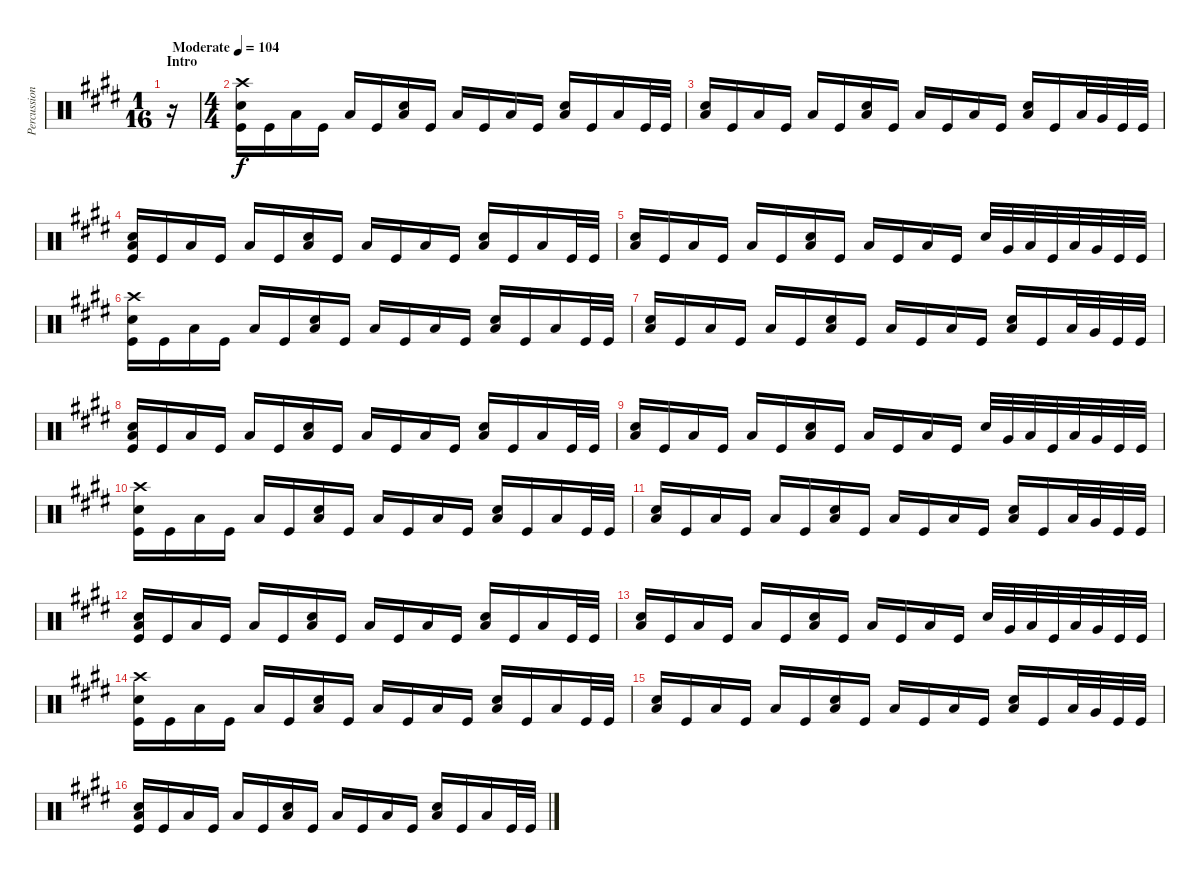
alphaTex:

\track ("Percussion" "Percussion") {instrument percussion}
\staff {score}
\articulation defaults
\ts (1 16)
\section ("" "Intro")
\tempo (104 "Moderate")
\clef neutral
\ks e
r.16{dy f} |
\ts (4 4)
("Crash high (hit)" "Electric Snare (hit)" "Kick (hit)").16 "Kick (hit)".16 "Low Tom (hit)".16 "Kick (hit)".16 "Low Tom (hit)".16 "Kick (hit)".16 ("Low Tom (hit)" "Electric Snare (hit)").16 "Kick (hit)".16 "Low Tom (hit)".16 "Kick (hit)".16 "Low Tom (hit)".16 "Kick (hit)".16 ("Low Tom (hit)" "Electric Snare (hit)").16 "Kick (hit)".16 "Low Tom (hit)".16 "Kick (hit)".32 "Kick (hit)".32 |
("Low Tom (hit)" "Electric Snare (hit)").16 "Kick (hit)".16 "Low Tom (hit)".16 "Kick (hit)".16 "Low Tom (hit)".16 "Kick (hit)".16 ("Low Tom (hit)" "Electric Snare (hit)").16 "Kick (hit)".16 "Low Tom (hit)".16 "Kick (hit)".16 "Low Tom (hit)".16 "Kick (hit)".16 ("Low Tom (hit)" "Electric Snare (hit)").16 "Kick (hit)".16 "Low Tom (hit)".32 "Very Low Tom (hit)".32 "Kick (hit)".32 "Kick (hit)".32 |
("Low Tom (hit)" "Electric Snare (hit)" "Kick (hit)").16 "Kick (hit)".16 "Low Tom (hit)".16 "Kick (hit)".16 "Low Tom (hit)".16 "Kick (hit)".16 ("Low Tom (hit)" "Electric Snare (hit)").16 "Kick (hit)".16 "Low Tom (hit)".16 "Kick (hit)".16 "Low Tom (hit)".16 "Kick (hit)".16 ("Low Tom (hit)" "Electric Snare (hit)").16 "Kick (hit)".16 "Low Tom (hit)".16 "Kick (hit)".32 "Kick (hit)".32 |
("Low Tom (hit)" "Electric Snare (hit)").16 "Kick (hit)".16 "Low Tom (hit)".16 "Kick (hit)".16 "Low Tom (hit)".16 "Kick (hit)".16 ("Low Tom (hit)" "Electric Snare (hit)").16 "Kick (hit)".16 "Low Tom (hit)".16 "Kick (hit)".16 "Low Tom (hit)".16 "Kick (hit)".16 "Electric Snare (hit)".32 "Very Low Tom (hit)".32 "Low Tom (hit)".32 "Kick (hit)".32 "Low Tom (hit)".32 "Very Low Tom (hit)".32 "Kick (hit)".32 "Kick (hit)".32 |
("Crash high (hit)" "Electric Snare (hit)" "Kick (hit)").16 "Kick (hit)".16 "Low Tom (hit)".16 "Kick (hit)".16 "Low Tom (hit)".16 "Kick (hit)".16 ("Low Tom (hit)" "Electric Snare (hit)").16 "Kick (hit)".16 "Low Tom (hit)".16 "Kick (hit)".16 "Low Tom (hit)".16 "Kick (hit)".16 ("Low Tom (hit)" "Electric Snare (hit)").16 "Kick (hit)".16 "Low Tom (hit)".16 "Kick (hit)".32 "Kick (hit)".32 |
("Low Tom (hit)" "Electric Snare (hit)").16 "Kick (hit)".16 "Low Tom (hit)".16 "Kick (hit)".16 "Low Tom (hit)".16 "Kick (hit)".16 ("Low Tom (hit)" "Electric Snare (hit)").16 "Kick (hit)".16 "Low Tom (hit)".16 "Kick (hit)".16 "Low Tom (hit)".16 "Kick (hit)".16 ("Low Tom (hit)" "Electric Snare (hit)").16 "Kick (hit)".16 "Low Tom (hit)".32 "Very Low Tom (hit)".32 "Kick (hit)".32 "Kick (hit)".32 |
("Low Tom (hit)" "Electric Snare (hit)" "Kick (hit)").16 "Kick (hit)".16 "Low Tom (hit)".16 "Kick (hit)".16 "Low Tom (hit)".16 "Kick (hit)".16 ("Low Tom (hit)" "Electric Snare (hit)").16 "Kick (hit)".16 "Low Tom (hit)".16 "Kick (hit)".16 "Low Tom (hit)".16 "Kick (hit)".16 ("Low Tom (hit)" "Electric Snare (hit)").16 "Kick (hit)".16 "Low Tom (hit)".16 "Kick (hit)".32 "Kick (hit)".32 |
("Low Tom (hit)" "Electric Snare (hit)").16 "Kick (hit)".16 "Low Tom (hit)".16 "Kick (hit)".16 "Low Tom (hit)".16 "Kick (hit)".16 ("Low Tom (hit)" "Electric Snare (hit)").16 "Kick (hit)".16 "Low Tom (hit)".16 "Kick (hit)".16 "Low Tom (hit)".16 "Kick (hit)".16 "Electric Snare (hit)".32 "Very Low Tom (hit)".32 "Low Tom (hit)".32 "Kick (hit)".32 "Low Tom (hit)".32 "Very Low Tom (hit)".32 "Kick (hit)".32 "Kick (hit)".32 |
("Crash high (hit)" "Electric Snare (hit)" "Kick (hit)").16 "Kick (hit)".16 "Low Tom (hit)".16 "Kick (hit)".16 "Low Tom (hit)".16 "Kick (hit)".16 ("Low Tom (hit)" "Electric Snare (hit)").16 "Kick (hit)".16 "Low Tom (hit)".16 "Kick (hit)".16 "Low Tom (hit)".16 "Kick (hit)".16 ("Low Tom (hit)" "Electric Snare (hit)").16 "Kick (hit)".16 "Low Tom (hit)".16 "Kick (hit)".32 "Kick (hit)".32 |
("Low Tom (hit)" "Electric Snare (hit)").16 "Kick (hit)".16 "Low Tom (hit)".16 "Kick (hit)".16 "Low Tom (hit)".16 "Kick (hit)".16 ("Low Tom (hit)" "Electric Snare (hit)").16 "Kick (hit)".16 "Low Tom (hit)".16 "Kick (hit)".16 "Low Tom (hit)".16 "Kick (hit)".16 ("Low Tom (hit)" "Electric Snare (hit)").16 "Kick (hit)".16 "Low Tom (hit)".32 "Very Low Tom (hit)".32 "Kick (hit)".32 "Kick (hit)".32 |
("Low Tom (hit)" "Electric Snare (hit)" "Kick (hit)").16 "Kick (hit)".16 "Low Tom (hit)".16 "Kick (hit)".16 "Low Tom (hit)".16 "Kick (hit)".16 ("Low Tom (hit)" "Electric Snare (hit)").16 "Kick (hit)".16 "Low Tom (hit)".16 "Kick (hit)".16 "Low Tom (hit)".16 "Kick (hit)".16 ("Low Tom (hit)" "Electric Snare (hit)").16 "Kick (hit)".16 "Low Tom (hit)".16 "Kick (hit)".32 "Kick (hit)".32 |
("Low Tom (hit)" "Electric Snare (hit)").16 "Kick (hit)".16 "Low Tom (hit)".16 "Kick (hit)".16 "Low Tom (hit)".16 "Kick (hit)".16 ("Low Tom (hit)" "Electric Snare (hit)").16 "Kick (hit)".16 "Low Tom (hit)".16 "Kick (hit)".16 "Low Tom (hit)".16 "Kick (hit)".16 "Electric Snare (hit)".32 "Very Low Tom (hit)".32 "Low Tom (hit)".32 "Kick (hit)".32 "Low Tom (hit)".32 "Very Low Tom (hit)".32 "Kick (hit)".32 "Kick (hit)".32 |
("Crash high (hit)" "Electric Snare (hit)" "Kick (hit)").16 "Kick (hit)".16 "Low Tom (hit)".16 "Kick (hit)".16 "Low Tom (hit)".16 "Kick (hit)".16 ("Low Tom (hit)" "Electric Snare (hit)").16 "Kick (hit)".16 "Low Tom (hit)".16 "Kick (hit)".16 "Low Tom (hit)".16 "Kick (hit)".16 ("Low Tom (hit)" "Electric Snare (hit)").16 "Kick (hit)".16 "Low Tom (hit)".16 "Kick (hit)".32 "Kick (hit)".32 |
("Low Tom (hit)" "Electric Snare (hit)").16 "Kick (hit)".16 "Low Tom (hit)".16 "Kick (hit)".16 "Low Tom (hit)".16 "Kick (hit)".16 ("Low Tom (hit)" "Electric Snare (hit)").16 "Kick (hit)".16 "Low Tom (hit)".16 "Kick (hit)".16 "Low Tom (hit)".16 "Kick (hit)".16 ("Low Tom (hit)" "Electric Snare (hit)").16 "Kick (hit)".16 "Low Tom (hit)".32 "Very Low Tom (hit)".32 "Kick (hit)".32 "Kick (hit)".32 |
("Low Tom (hit)" "Electric Snare (hit)" "Kick (hit)").16 "Kick (hit)".16 "Low Tom (hit)".16 "Kick (hit)".16 "Low Tom (hit)".16 "Kick (hit)".16 ("Low Tom (hit)" "Electric Snare (hit)").16 "Kick (hit)".16 "Low Tom (hit)".16 "Kick (hit)".16 "Low Tom (hit)".16 "Kick (hit)".16 ("Low Tom (hit)" "Electric Snare (hit)").16 "Kick (hit)".16 "Low Tom (hit)".16 "Kick (hit)".32 "Kick (hit)".32
